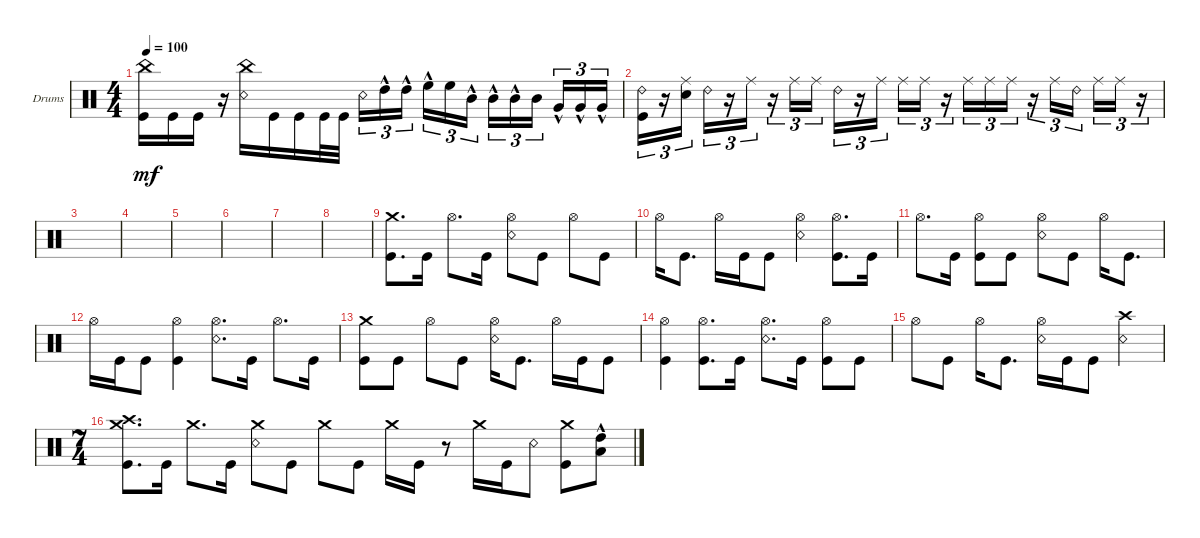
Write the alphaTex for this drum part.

\defaultSystemsLayout 4
\bracketExtendMode groupsimilarinstruments
\firstSystemTrackNameOrientation horizontal
\otherSystemsTrackNameOrientation horizontal
\track ("Drumkit" "Drums") {instrument percussion}
\staff {score}
\articulation defaults
\ts (4 4)
\tempo 100
\clef neutral
\ks c
("China (hit)" "Kick (hit)").16{dy mf} "Kick (hit)".16 "Kick (hit)".16 r.16 ("Snare (rim shot)" "China (hit)").16 "Kick (hit)".16 "Kick (hit)".16 "Kick (hit)".32 "Kick (hit)".32 "Snare (rim shot)".16{tu (3 2)} "High Tom (hit)"{hac}.16{tu (3 2)} "High Tom (hit)"{hac}.16{tu (3 2)} "High Floor Tom (hit)"{hac}.16{tu (3 2)} "High Floor Tom (hit)".16{tu (3 2)} "Mid Tom (hit)"{hac}.16{tu (3 2)} "Mid Tom (hit)"{hac}.16{tu (3 2)} "Mid Tom (hit)"{hac}.16{tu (3 2)} "Mid Tom (hit)".16{tu (3 2)} "Very Low Tom (hit)"{hac}.16{tu (3 2)} "Very Low Tom (hit)"{hac}.16{tu (3 2)} "Very Low Tom (hit)"{hac}.16{tu (3 2)} |
("Ride (bell) 2" "Kick (hit)").16{tu (3 2)} r.16{tu (3 2)} ("Ride (middle)" "Snare (hit) 2").16{tu (3 2)} "Ride (bell) 2".16{tu (3 2)} r.16{tu (3 2)} "Ride (middle)".16{tu (3 2)} r.16{tu (3 2)} "Ride (middle)".16{tu (3 2)} "Ride (middle)".16{tu (3 2)} "Ride (bell) 2".16{tu (3 2)} r.16{tu (3 2)} "Ride (middle)".16{tu (3 2)} "Ride (middle)".16{tu (3 2)} "Ride (middle)".16{tu (3 2)} r.16{tu (3 2)} "Ride (middle)".16{tu (3 2)} "Ride (middle)".16{tu (3 2)} "Ride (middle)".16{tu (3 2)} r.16{tu (3 2)} "Ride (middle)".16{tu (3 2)} "Ride (bell) 2".16{tu (3 2)} "Ride (middle)".16{tu (3 2)} "Ride (middle)".16{tu (3 2)} r.16{tu (3 2)} |
|
|
|
|
|
|
("Kick (hit)" "Crash medium (hit)").8{d} "Kick (hit)".16 "Hi-Hat (open)".8{d} "Kick (hit)".16 ("Snare (rim shot)" "Hi-Hat (open)").8 "Kick (hit)".8 "Hi-Hat (open)".8 "Kick (hit)".8 |
"Hi-Hat (open)".16 "Kick (hit)".8{d} "Hi-Hat (open)".16 "Kick (hit)".16 "Kick (hit)".8 ("Hi-Hat (open)" "Snare (rim shot)").4 ("Kick (hit)" "Hi-Hat (open)").8{d} "Kick (hit)".16 |
"Hi-Hat (open)".8{d} "Kick (hit)".16 ("Kick (hit)" "Hi-Hat (open)").8 "Kick (hit)".8 ("Hi-Hat (open)" "Snare (rim shot)").8 "Kick (hit)".8 "Hi-Hat (open)".16 "Kick (hit)".8{d} |
"Hi-Hat (open)".16 "Kick (hit)".16 "Kick (hit)".8 ("Kick (hit)" "Hi-Hat (open)").4 ("Hi-Hat (open)" "Snare (rim shot)").8{d} "Kick (hit)".16 "Hi-Hat (open)".8{d} "Kick (hit)".16 |
("Kick (hit)" "Crash medium (hit)").8 "Kick (hit)".8 "Hi-Hat (open)".8 "Kick (hit)".8 ("Hi-Hat (open)" "Snare (rim shot)").16 "Kick (hit)".8{d} "Hi-Hat (open)".16 "Kick (hit)".16 "Kick (hit)".8 |
("Kick (hit)" "Hi-Hat (open)").4 ("Kick (hit)" "Hi-Hat (open)").8{d} "Kick (hit)".16 ("Hi-Hat (open)" "Snare (rim shot)").8{d} "Kick (hit)".16 ("Kick (hit)" "Hi-Hat (open)").8 "Kick (hit)".8 |
"Hi-Hat (open)".8 "Kick (hit)".8 "Hi-Hat (open)".16 "Kick (hit)".8{d} ("Hi-Hat (open)" "Snare (rim shot)").16 "Kick (hit)".16 "Kick (hit)".8 ("Snare (rim shot)" "Crash high (hit)").4 |
\ts (7 4)
("Kick (hit)" "Crash high (hit)" "Crash medium (hit)").8{d} "Kick (hit)".16 "Crash medium (hit)".8{d} "Kick (hit)".16 ("Snare (rim shot)" "Crash medium (hit)").8 "Kick (hit)".8 "Crash medium (hit)".8 "Kick (hit)".8 "Crash medium (hit)".16 "Kick (hit)".16 r.8 "Crash medium (hit)".16 "Kick (hit)".16 "Snare (rim shot)".8 ("Kick (hit)" "Crash medium (hit)").8 ("Low Tom (hit)"{hac} "High Tom (hit)"{hac}).8
